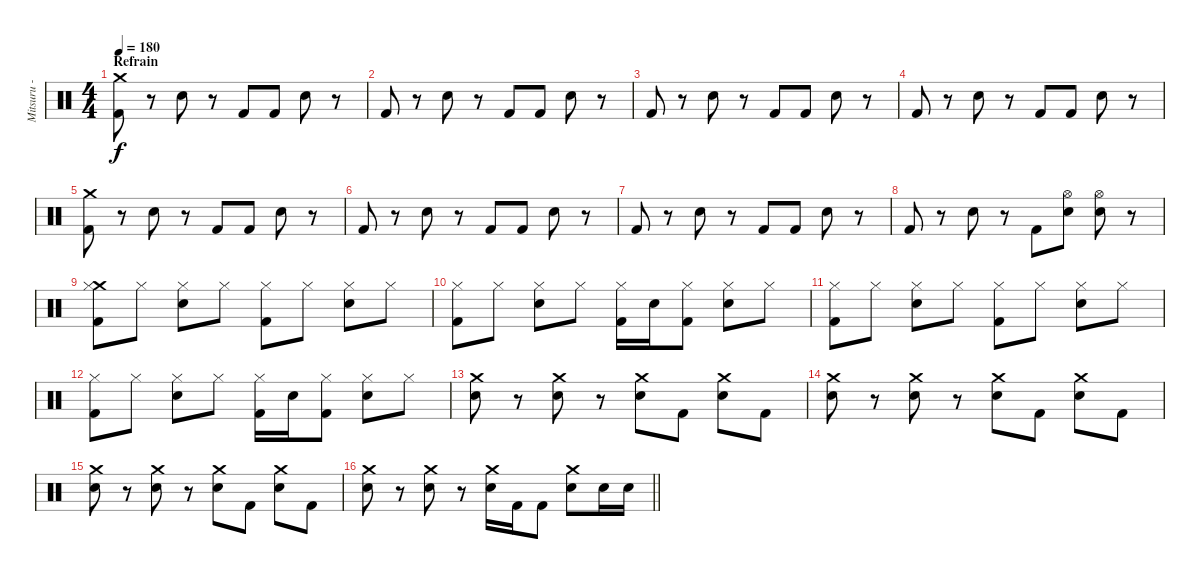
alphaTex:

\track ("Mitsuru - Batterie" "Mitsuru - ") {instrument percussion}
\staff {score}
\articulation defaults
\ts (4 4)
\section ("" "Refrain")
\tempo 180
\clef neutral
\ks c
("Crash medium (hit)" "Kick (hit) 2").8{dy f} r.8 "Electric Snare (hit)".8 r.8 "Kick (hit) 2".8 "Kick (hit) 2".8 "Electric Snare (hit)".8 r.8 |
"Kick (hit) 2".8 r.8 "Electric Snare (hit)".8 r.8 "Kick (hit) 2".8 "Kick (hit) 2".8 "Electric Snare (hit)".8 r.8 |
"Kick (hit) 2".8 r.8 "Electric Snare (hit)".8 r.8 "Kick (hit) 2".8 "Kick (hit) 2".8 "Electric Snare (hit)".8 r.8 |
"Kick (hit) 2".8 r.8 "Electric Snare (hit)".8 r.8 "Kick (hit) 2".8 "Kick (hit) 2".8 "Electric Snare (hit)".8 r.8 |
("Crash medium (hit)" "Kick (hit) 2").8 r.8 "Electric Snare (hit)".8 r.8 "Kick (hit) 2".8 "Kick (hit) 2".8 "Electric Snare (hit)".8 r.8 |
"Kick (hit) 2".8 r.8 "Electric Snare (hit)".8 r.8 "Kick (hit) 2".8 "Kick (hit) 2".8 "Electric Snare (hit)".8 r.8 |
"Kick (hit) 2".8 r.8 "Electric Snare (hit)".8 r.8 "Kick (hit) 2".8 "Kick (hit) 2".8 "Electric Snare (hit)".8 r.8 |
"Kick (hit) 2".8 r.8 "Electric Snare (hit)".8 r.8 "Kick (hit) 2".8 ("Hi-Hat (open)" "Electric Snare (hit)").8 ("Hi-Hat (open)" "Electric Snare (hit)").8 r.8 |
("Crash medium (hit)" "Hi-Hat (closed)" "Kick (hit) 2").8 "Hi-Hat (closed)".8 ("Hi-Hat (closed)" "Electric Snare (hit)").8 "Hi-Hat (closed)".8 ("Hi-Hat (closed)" "Kick (hit) 2").8 "Hi-Hat (closed)".8 ("Hi-Hat (closed)" "Electric Snare (hit)").8 "Hi-Hat (closed)".8 |
("Hi-Hat (closed)" "Kick (hit) 2").8 "Hi-Hat (closed)".8 ("Hi-Hat (closed)" "Electric Snare (hit)").8 "Hi-Hat (closed)".8 ("Hi-Hat (closed)" "Kick (hit) 2").16 "Electric Snare (hit)".16 ("Hi-Hat (closed)" "Kick (hit) 2").8 ("Hi-Hat (closed)" "Electric Snare (hit)").8 "Hi-Hat (closed)".8 |
("Hi-Hat (closed)" "Kick (hit) 2").8 "Hi-Hat (closed)".8 ("Hi-Hat (closed)" "Electric Snare (hit)").8 "Hi-Hat (closed)".8 ("Hi-Hat (closed)" "Kick (hit) 2").8 "Hi-Hat (closed)".8 ("Hi-Hat (closed)" "Electric Snare (hit)").8 "Hi-Hat (closed)".8 |
("Hi-Hat (closed)" "Kick (hit) 2").8 "Hi-Hat (closed)".8 ("Hi-Hat (closed)" "Electric Snare (hit)").8 "Hi-Hat (closed)".8 ("Hi-Hat (closed)" "Kick (hit) 2").16 "Electric Snare (hit)".16 ("Hi-Hat (closed)" "Kick (hit) 2").8 ("Hi-Hat (closed)" "Electric Snare (hit)").8 "Hi-Hat (closed)".8 |
("Crash medium (hit)" "Electric Snare (hit)").8 r.8 ("Crash medium (hit)" "Electric Snare (hit)").8 r.8 ("Crash medium (hit)" "Electric Snare (hit)").8 "Kick (hit) 2".8 ("Crash medium (hit)" "Electric Snare (hit)").8 "Kick (hit) 2".8 |
("Crash medium (hit)" "Electric Snare (hit)").8 r.8 ("Crash medium (hit)" "Electric Snare (hit)").8 r.8 ("Crash medium (hit)" "Electric Snare (hit)").8 "Kick (hit) 2".8 ("Crash medium (hit)" "Electric Snare (hit)").8 "Kick (hit) 2".8 |
("Crash medium (hit)" "Electric Snare (hit)").8 r.8 ("Crash medium (hit)" "Electric Snare (hit)").8 r.8 ("Crash medium (hit)" "Electric Snare (hit)").8 "Kick (hit) 2".8 ("Crash medium (hit)" "Electric Snare (hit)").8 "Kick (hit) 2".8 |
\barLineRight lightlight
("Crash medium (hit)" "Electric Snare (hit)").8 r.8 ("Crash medium (hit)" "Electric Snare (hit)").8 r.8 ("Crash medium (hit)" "Electric Snare (hit)").16 "Kick (hit) 2".16 "Kick (hit) 2".8 ("Crash medium (hit)" "Electric Snare (hit)").8 "Electric Snare (hit)".16 "Electric Snare (hit)".16
